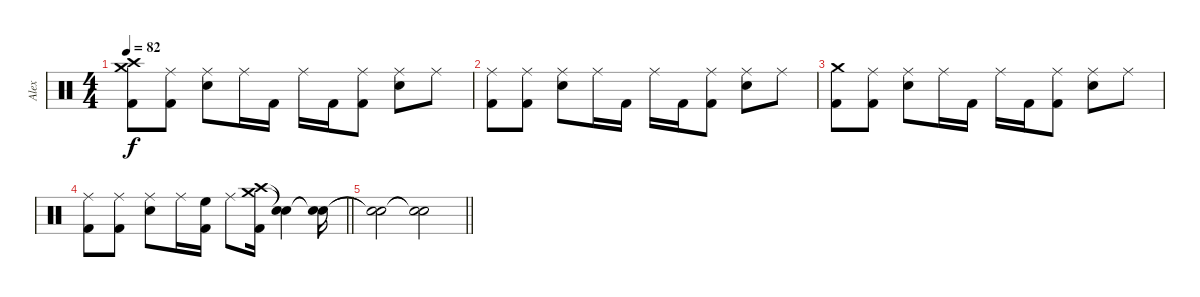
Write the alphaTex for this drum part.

\track ("Alex" "Alex") {instrument percussion}
\staff {score}
\articulation defaults
\ts (4 4)
\tempo 82
\clef neutral
\ks c
("Crash medium (hit)" "Crash high (hit)" "Kick (hit) 2").8{dy f} ("Ride (middle)" "Kick (hit) 2").8 ("Ride (middle)" "Electric Snare (hit)").8 "Ride (middle)".16 "Kick (hit) 2".16 "Ride (middle)".16 "Kick (hit) 2".16 ("Ride (middle)" "Kick (hit) 2").8 ("Ride (middle)" "Electric Snare (hit)").8 "Ride (middle)".8 |
("Ride (middle)" "Kick (hit) 2").8 ("Ride (middle)" "Kick (hit) 2").8 ("Ride (middle)" "Electric Snare (hit)").8 "Ride (middle)".16 "Kick (hit) 2".16 "Ride (middle)".16 "Kick (hit) 2".16 ("Ride (middle)" "Kick (hit) 2").8 ("Ride (middle)" "Electric Snare (hit)").8 "Ride (middle)".8 |
("Crash medium (hit)" "Kick (hit) 2").8 ("Ride (middle)" "Kick (hit) 2").8 ("Ride (middle)" "Electric Snare (hit)").8 "Ride (middle)".16 "Kick (hit) 2".16 "Ride (middle)".16 "Kick (hit) 2".16 ("Ride (middle)" "Kick (hit) 2").8 ("Ride (middle)" "Electric Snare (hit)").8 "Ride (middle)".8 |
\barLineRight lightlight
("Ride (middle)" "Kick (hit) 2").8 ("Ride (middle)" "Kick (hit) 2").8 ("Ride (middle)" "Electric Snare (hit)").8 "Ride (middle)".16 ("High Floor Tom (hit)" "Kick (hit) 2").16 "Ride (middle)".8 ("Crash high (hit)" "Crash medium (hit)" "Kick (hit) 2").16 ("Snare (hit)"{t} "Snare (hit)"{t}).4 ("Snare (hit)"{t} "Snare (hit)"{t}).16 |
\barLineRight lightlight
("Snare (hit)"{t} "Snare (hit)"{t}).2 ("Snare (hit)"{t} "Snare (hit)"{t}).2
